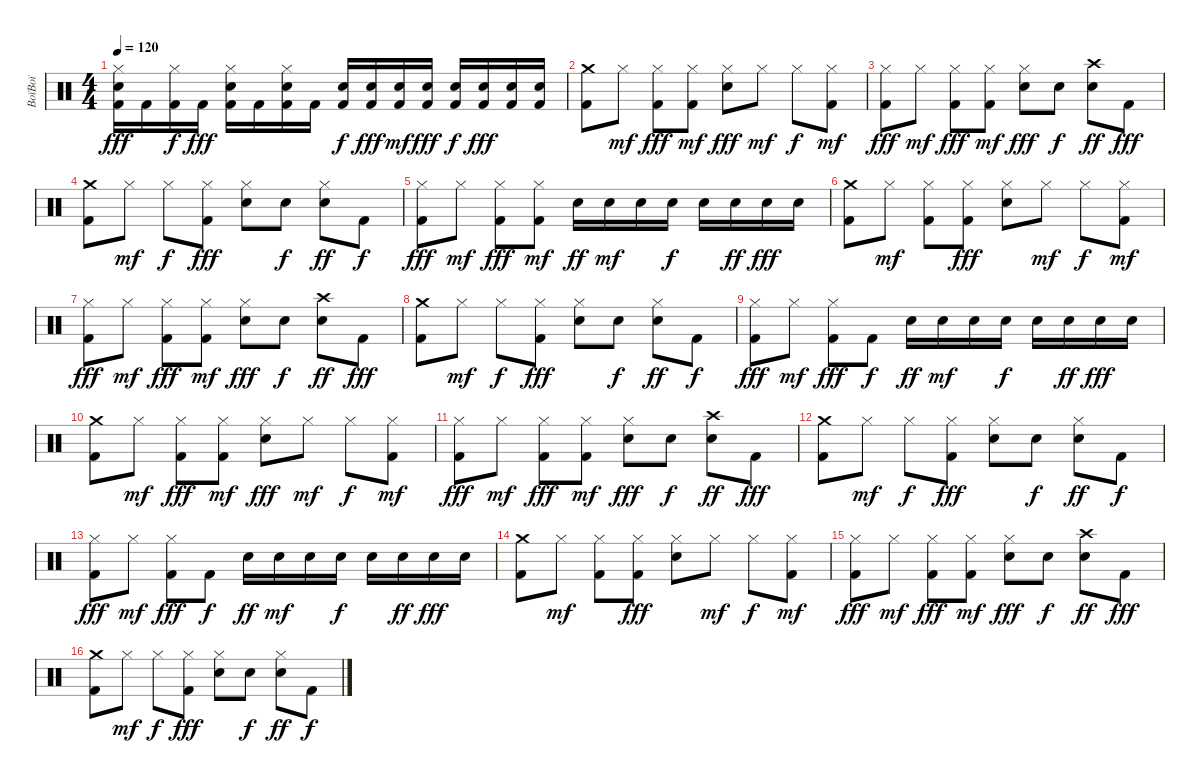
\track ("BoïBoï" "BoïBoï") {instrument percussion}
\staff {score}
\articulation defaults
\ts (4 4)
\tempo 120
\clef neutral
\ks c
("Hi-Hat (closed)" "Electric Snare (hit)" "Kick (hit) 2").16{dy fff} "Kick (hit) 2".16 ("Hi-Hat (closed)" "Kick (hit) 2").16{dy f} "Kick (hit) 2".16{dy fff} ("Hi-Hat (closed)" "Electric Snare (hit)" "Kick (hit) 2").16 "Kick (hit) 2".16 ("Hi-Hat (closed)" "Electric Snare (hit)" "Kick (hit) 2").16 "Kick (hit) 2".16 ("Electric Snare (hit)" "Kick (hit) 2").16{dy f} ("Electric Snare (hit)" "Kick (hit) 2").16{dy fff} ("Electric Snare (hit)" "Kick (hit) 2").16{dy mf} ("Electric Snare (hit)" "Kick (hit) 2").16{dy fff} ("Electric Snare (hit)" "Kick (hit) 2").16{dy f} ("Electric Snare (hit)" "Kick (hit) 2").16{dy fff} ("Electric Snare (hit)" "Kick (hit) 2").16 ("Electric Snare (hit)" "Kick (hit) 2").16 |
("Crash medium (hit)" "Kick (hit) 2").8 "Hi-Hat (closed)".8{dy mf} ("Hi-Hat (closed)" "Kick (hit) 2").8{dy fff} ("Hi-Hat (closed)" "Kick (hit) 2").8{dy mf} ("Hi-Hat (closed)" "Electric Snare (hit)").8{dy fff} "Hi-Hat (closed)".8{dy mf} "Hi-Hat (closed)".8{dy f} ("Hi-Hat (closed)" "Kick (hit) 2").8{dy mf} |
("Hi-Hat (closed)" "Kick (hit) 2").8{dy fff} "Hi-Hat (closed)".8{dy mf} ("Hi-Hat (closed)" "Kick (hit) 2").8{dy fff} ("Hi-Hat (closed)" "Kick (hit) 2").8{dy mf} ("Hi-Hat (closed)" "Electric Snare (hit)").8{dy fff} "Electric Snare (hit)".8{dy f} ("Crash high (hit)" "Electric Snare (hit)").8{dy ff} "Kick (hit) 2".8{dy fff} |
("Crash medium (hit)" "Kick (hit) 2").8 "Hi-Hat (closed)".8{dy mf} "Hi-Hat (closed)".8{dy f} ("Hi-Hat (closed)" "Kick (hit) 2").8{dy fff} ("Hi-Hat (closed)" "Electric Snare (hit)").8 "Electric Snare (hit)".8{dy f} ("Hi-Hat (closed)" "Electric Snare (hit)").8{dy ff} "Kick (hit) 2".8{dy f} |
("Hi-Hat (closed)" "Kick (hit) 2").8{dy fff} "Hi-Hat (closed)".8{dy mf} ("Hi-Hat (closed)" "Kick (hit) 2").8{dy fff} ("Hi-Hat (closed)" "Kick (hit) 2").8{dy mf} "Electric Snare (hit)".16{dy ff} "Electric Snare (hit)".16{dy mf} "Electric Snare (hit)".16 "Electric Snare (hit)".16{dy f} "Electric Snare (hit)".16 "Electric Snare (hit)".16{dy ff} "Electric Snare (hit)".16{dy fff} "Electric Snare (hit)".16 |
("Crash medium (hit)" "Kick (hit) 2").8 "Hi-Hat (closed)".8{dy mf} ("Hi-Hat (closed)" "Kick (hit) 2").8 ("Hi-Hat (closed)" "Kick (hit) 2").8{dy fff} ("Hi-Hat (closed)" "Electric Snare (hit)").8 "Hi-Hat (closed)".8{dy mf} "Hi-Hat (closed)".8{dy f} ("Hi-Hat (closed)" "Kick (hit) 2").8{dy mf} |
("Hi-Hat (closed)" "Kick (hit) 2").8{dy fff} "Hi-Hat (closed)".8{dy mf} ("Hi-Hat (closed)" "Kick (hit) 2").8{dy fff} ("Hi-Hat (closed)" "Kick (hit) 2").8{dy mf} ("Hi-Hat (closed)" "Electric Snare (hit)").8{dy fff} "Electric Snare (hit)".8{dy f} ("Crash high (hit)" "Electric Snare (hit)").8{dy ff} "Kick (hit) 2".8{dy fff} |
("Crash medium (hit)" "Kick (hit) 2").8 "Hi-Hat (closed)".8{dy mf} "Hi-Hat (closed)".8{dy f} ("Hi-Hat (closed)" "Kick (hit) 2").8{dy fff} ("Hi-Hat (closed)" "Electric Snare (hit)").8 "Electric Snare (hit)".8{dy f} ("Hi-Hat (closed)" "Electric Snare (hit)").8{dy ff} "Kick (hit) 2".8{dy f} |
("Hi-Hat (closed)" "Kick (hit) 2").8{dy fff} "Hi-Hat (closed)".8{dy mf} ("Hi-Hat (closed)" "Kick (hit) 2").8{dy fff} "Kick (hit) 2".8{dy f} "Electric Snare (hit)".16{dy ff} "Electric Snare (hit)".16{dy mf} "Electric Snare (hit)".16 "Electric Snare (hit)".16{dy f} "Electric Snare (hit)".16 "Electric Snare (hit)".16{dy ff} "Electric Snare (hit)".16{dy fff} "Electric Snare (hit)".16 |
("Crash medium (hit)" "Kick (hit) 2").8 "Hi-Hat (closed)".8{dy mf} ("Hi-Hat (closed)" "Kick (hit) 2").8{dy fff} ("Hi-Hat (closed)" "Kick (hit) 2").8{dy mf} ("Hi-Hat (closed)" "Electric Snare (hit)").8{dy fff} "Hi-Hat (closed)".8{dy mf} "Hi-Hat (closed)".8{dy f} ("Hi-Hat (closed)" "Kick (hit) 2").8{dy mf} |
("Hi-Hat (closed)" "Kick (hit) 2").8{dy fff} "Hi-Hat (closed)".8{dy mf} ("Hi-Hat (closed)" "Kick (hit) 2").8{dy fff} ("Hi-Hat (closed)" "Kick (hit) 2").8{dy mf} ("Hi-Hat (closed)" "Electric Snare (hit)").8{dy fff} "Electric Snare (hit)".8{dy f} ("Crash high (hit)" "Electric Snare (hit)").8{dy ff} "Kick (hit) 2".8{dy fff} |
("Crash medium (hit)" "Kick (hit) 2").8 "Hi-Hat (closed)".8{dy mf} "Hi-Hat (closed)".8{dy f} ("Hi-Hat (closed)" "Kick (hit) 2").8{dy fff} ("Hi-Hat (closed)" "Electric Snare (hit)").8 "Electric Snare (hit)".8{dy f} ("Hi-Hat (closed)" "Electric Snare (hit)").8{dy ff} "Kick (hit) 2".8{dy f} |
("Hi-Hat (closed)" "Kick (hit) 2").8{dy fff} "Hi-Hat (closed)".8{dy mf} ("Hi-Hat (closed)" "Kick (hit) 2").8{dy fff} "Kick (hit) 2".8{dy f} "Electric Snare (hit)".16{dy ff} "Electric Snare (hit)".16{dy mf} "Electric Snare (hit)".16 "Electric Snare (hit)".16{dy f} "Electric Snare (hit)".16 "Electric Snare (hit)".16{dy ff} "Electric Snare (hit)".16{dy fff} "Electric Snare (hit)".16 |
("Crash medium (hit)" "Kick (hit) 2").8 "Hi-Hat (closed)".8{dy mf} ("Hi-Hat (closed)" "Kick (hit) 2").8 ("Hi-Hat (closed)" "Kick (hit) 2").8{dy fff} ("Hi-Hat (closed)" "Electric Snare (hit)").8 "Hi-Hat (closed)".8{dy mf} "Hi-Hat (closed)".8{dy f} ("Hi-Hat (closed)" "Kick (hit) 2").8{dy mf} |
("Hi-Hat (closed)" "Kick (hit) 2").8{dy fff} "Hi-Hat (closed)".8{dy mf} ("Hi-Hat (closed)" "Kick (hit) 2").8{dy fff} ("Hi-Hat (closed)" "Kick (hit) 2").8{dy mf} ("Hi-Hat (closed)" "Electric Snare (hit)").8{dy fff} "Electric Snare (hit)".8{dy f} ("Crash high (hit)" "Electric Snare (hit)").8{dy ff} "Kick (hit) 2".8{dy fff} |
("Crash medium (hit)" "Kick (hit) 2").8 "Hi-Hat (closed)".8{dy mf} "Hi-Hat (closed)".8{dy f} ("Hi-Hat (closed)" "Kick (hit) 2").8{dy fff} ("Hi-Hat (closed)" "Electric Snare (hit)").8 "Electric Snare (hit)".8{dy f} ("Hi-Hat (closed)" "Electric Snare (hit)").8{dy ff} "Kick (hit) 2".8{dy f}
